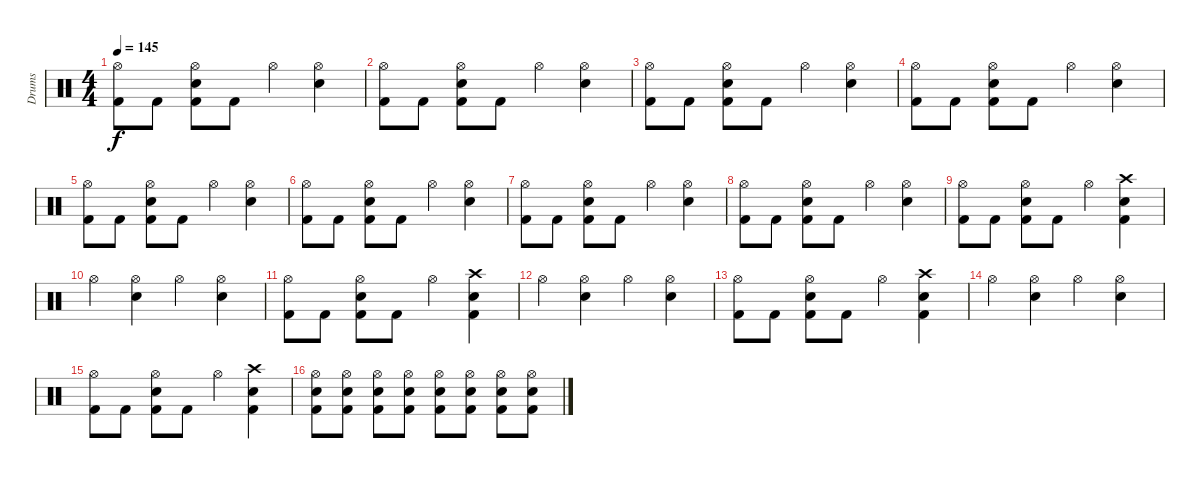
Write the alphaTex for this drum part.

\track ("Drums" "Drums") {instrument percussion}
\staff {score}
\articulation defaults
\ts (4 4)
\tempo 145
\clef neutral
\ks c
("Hi-Hat (open)" "Kick (hit) 2").8{dy f} "Kick (hit) 2".8 ("Hi-Hat (open)" "Snare (hit) 2" "Kick (hit) 2").8 "Kick (hit) 2".8 "Hi-Hat (open)".4 ("Hi-Hat (open)" "Snare (hit) 2").4 |
("Hi-Hat (open)" "Kick (hit) 2").8 "Kick (hit) 2".8 ("Hi-Hat (open)" "Snare (hit) 2" "Kick (hit) 2").8 "Kick (hit) 2".8 "Hi-Hat (open)".4 ("Hi-Hat (open)" "Snare (hit) 2").4 |
("Hi-Hat (open)" "Kick (hit) 2").8 "Kick (hit) 2".8 ("Hi-Hat (open)" "Snare (hit) 2" "Kick (hit) 2").8 "Kick (hit) 2".8 "Hi-Hat (open)".4 ("Hi-Hat (open)" "Snare (hit) 2").4 |
("Hi-Hat (open)" "Kick (hit) 2").8 "Kick (hit) 2".8 ("Hi-Hat (open)" "Snare (hit) 2" "Kick (hit) 2").8 "Kick (hit) 2".8 "Hi-Hat (open)".4 ("Hi-Hat (open)" "Snare (hit) 2").4 |
("Hi-Hat (open)" "Kick (hit) 2").8 "Kick (hit) 2".8 ("Hi-Hat (open)" "Snare (hit) 2" "Kick (hit) 2").8 "Kick (hit) 2".8 "Hi-Hat (open)".4 ("Hi-Hat (open)" "Snare (hit) 2").4 |
("Hi-Hat (open)" "Kick (hit) 2").8 "Kick (hit) 2".8 ("Hi-Hat (open)" "Snare (hit) 2" "Kick (hit) 2").8 "Kick (hit) 2".8 "Hi-Hat (open)".4 ("Hi-Hat (open)" "Snare (hit) 2").4 |
("Hi-Hat (open)" "Kick (hit) 2").8 "Kick (hit) 2".8 ("Hi-Hat (open)" "Snare (hit) 2" "Kick (hit) 2").8 "Kick (hit) 2".8 "Hi-Hat (open)".4 ("Hi-Hat (open)" "Snare (hit) 2").4 |
("Hi-Hat (open)" "Kick (hit) 2").8 "Kick (hit) 2".8 ("Hi-Hat (open)" "Snare (hit) 2" "Kick (hit) 2").8 "Kick (hit) 2".8 "Hi-Hat (open)".4 ("Hi-Hat (open)" "Snare (hit) 2").4 |
("Hi-Hat (open)" "Kick (hit) 2").8 "Kick (hit) 2".8 ("Hi-Hat (open)" "Snare (hit) 2" "Kick (hit) 2").8 "Kick (hit) 2".8 "Hi-Hat (open)".4 ("Crash high (hit)" "Snare (hit) 2" "Kick (hit) 2").4 |
"Hi-Hat (open)".4 ("Hi-Hat (open)" "Snare (hit) 2").4 "Hi-Hat (open)".4 ("Hi-Hat (open)" "Snare (hit) 2").4 |
("Hi-Hat (open)" "Kick (hit) 2").8 "Kick (hit) 2".8 ("Hi-Hat (open)" "Snare (hit) 2" "Kick (hit) 2").8 "Kick (hit) 2".8 "Hi-Hat (open)".4 ("Crash high (hit)" "Snare (hit) 2" "Kick (hit) 2").4 |
"Hi-Hat (open)".4 ("Hi-Hat (open)" "Snare (hit) 2").4 "Hi-Hat (open)".4 ("Hi-Hat (open)" "Snare (hit) 2").4 |
("Hi-Hat (open)" "Kick (hit) 2").8 "Kick (hit) 2".8 ("Hi-Hat (open)" "Snare (hit) 2" "Kick (hit) 2").8 "Kick (hit) 2".8 "Hi-Hat (open)".4 ("Crash high (hit)" "Snare (hit) 2" "Kick (hit) 2").4 |
"Hi-Hat (open)".4 ("Hi-Hat (open)" "Snare (hit) 2").4 "Hi-Hat (open)".4 ("Hi-Hat (open)" "Snare (hit) 2").4 |
("Hi-Hat (open)" "Kick (hit) 2").8 "Kick (hit) 2".8 ("Hi-Hat (open)" "Snare (hit) 2" "Kick (hit) 2").8 "Kick (hit) 2".8 "Hi-Hat (open)".4 ("Crash high (hit)" "Snare (hit) 2" "Kick (hit) 2").4 |
("Hi-Hat (open)" "Snare (hit) 2" "Kick (hit) 2").8 ("Hi-Hat (open)" "Snare (hit) 2" "Kick (hit) 2").8 ("Hi-Hat (open)" "Snare (hit) 2" "Kick (hit) 2").8 ("Hi-Hat (open)" "Snare (hit) 2" "Kick (hit) 2").8 ("Hi-Hat (open)" "Snare (hit) 2" "Kick (hit) 2").8 ("Hi-Hat (open)" "Snare (hit) 2" "Kick (hit) 2").8 ("Hi-Hat (open)" "Snare (hit) 2" "Kick (hit) 2").8 ("Hi-Hat (open)" "Snare (hit) 2" "Kick (hit) 2").8
